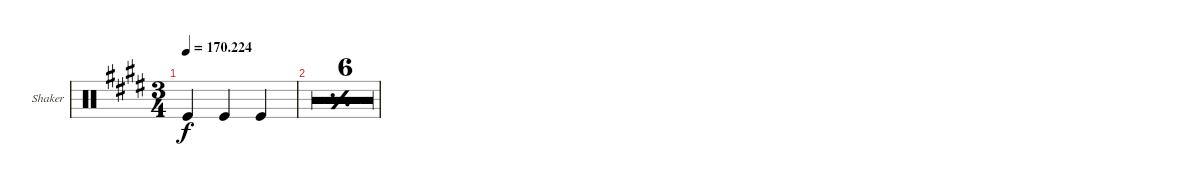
\defaultSystemsLayout 4
\bracketExtendMode groupsimilarinstruments
\firstSystemTrackNameOrientation horizontal
\otherSystemsTrackNameOrientation horizontal
\track ("Shaker" "Shaker") {multiBarRest instrument percussion}
\staff {score}
\articulation defaults
\ts (3 4)
\tempo
170.224
\accidentals auto
\clef neutral
\ottava regular
\simile none
\ks e "Kick (hit)".4{dy f} "Kick (hit)".4 "Kick (hit)".4
|
\simile simple
|
|
|
|
|
\simile none
r.2{d}
